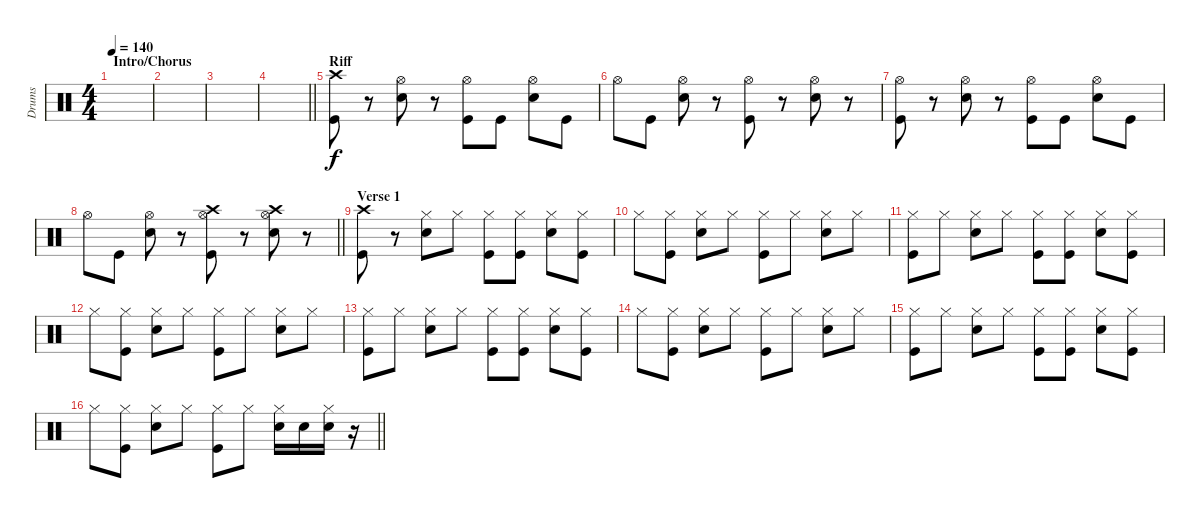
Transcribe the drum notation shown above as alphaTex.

\track ("Drums" "Drums") {instrument percussion}
\staff {score}
\articulation defaults
\ts (4 4)
\section ("" "Intro/Chorus")
\tempo 140
\clef neutral
\ks c
|
|
|
\barLineRight lightlight
|
\section ("" "Riff")
("Kick (hit)" "Crash high (hit)").8 r.8 ("Electric Snare (hit)" "Hi-Hat (open)").8 r.8 ("Kick (hit)" "Hi-Hat (open)").8 "Kick (hit)".8 ("Electric Snare (hit)" "Hi-Hat (open)").8 "Kick (hit)".8 |
"Hi-Hat (open)".8 "Kick (hit)".8 ("Electric Snare (hit)" "Hi-Hat (open)").8 r.8 ("Kick (hit)" "Hi-Hat (open)").8 r.8 ("Electric Snare (hit)" "Hi-Hat (open)").8 r.8 |
("Kick (hit)" "Hi-Hat (open)").8 r.8 ("Electric Snare (hit)" "Hi-Hat (open)").8 r.8 ("Kick (hit)" "Hi-Hat (open)").8 "Kick (hit)".8 ("Electric Snare (hit)" "Hi-Hat (open)").8 "Kick (hit)".8 |
\barLineRight lightlight "Hi-Hat (open)".8 "Kick (hit)".8
("Electric Snare (hit)" "Hi-Hat (open)").8 r.8 ("Kick (hit)" "Hi-Hat (open)" "Crash high (hit)").8 r.8 ("Electric Snare (hit)" "Hi-Hat (open)" "Crash high (hit)").8 r.8 |
\section ("" "Verse 1")
("Kick (hit)" "Crash high (hit)").8 r.8 ("Electric Snare (hit)" "Hi-Hat (closed)").8 "Hi-Hat (closed)".8 ("Kick (hit)" "Hi-Hat (closed)").8 ("Kick (hit)" "Hi-Hat (closed)").8 ("Electric Snare (hit)" "Hi-Hat (closed)").8 ("Kick (hit)" "Hi-Hat (closed)").8 |
"Hi-Hat (closed)".8 ("Kick (hit)" "Hi-Hat (closed)").8 ("Electric Snare (hit)" "Hi-Hat (closed)").8 "Hi-Hat (closed)".8 ("Kick (hit)" "Hi-Hat (closed)").8 "Hi-Hat (closed)".8 ("Electric Snare (hit)" "Hi-Hat (closed)").8 "Hi-Hat (closed)".8 |
("Kick (hit)" "Hi-Hat (closed)").8 "Hi-Hat (closed)".8 ("Electric Snare (hit)" "Hi-Hat (closed)").8 "Hi-Hat (closed)".8 ("Kick (hit)" "Hi-Hat (closed)").8 ("Kick (hit)" "Hi-Hat (closed)").8 ("Electric Snare (hit)" "Hi-Hat (closed)").8 ("Kick (hit)" "Hi-Hat (closed)").8 |
"Hi-Hat (closed)".8 ("Kick (hit)" "Hi-Hat (closed)").8 ("Electric Snare (hit)" "Hi-Hat (closed)").8 "Hi-Hat (closed)".8 ("Kick (hit)" "Hi-Hat (closed)").8 "Hi-Hat (closed)".8 ("Electric Snare (hit)" "Hi-Hat (closed)").8 "Hi-Hat (closed)".8 |
("Kick (hit)" "Hi-Hat (closed)").8 "Hi-Hat (closed)".8 ("Electric Snare (hit)" "Hi-Hat (closed)").8 "Hi-Hat (closed)".8 ("Kick (hit)" "Hi-Hat (closed)").8 ("Kick (hit)" "Hi-Hat (closed)").8 ("Electric Snare (hit)" "Hi-Hat (closed)").8 ("Kick (hit)" "Hi-Hat (closed)").8 |
"Hi-Hat (closed)".8 ("Kick (hit)" "Hi-Hat (closed)").8 ("Electric Snare (hit)" "Hi-Hat (closed)").8 "Hi-Hat (closed)".8 ("Kick (hit)" "Hi-Hat (closed)").8 "Hi-Hat (closed)".8 ("Electric Snare (hit)" "Hi-Hat (closed)").8 "Hi-Hat (closed)".8 |
("Kick (hit)" "Hi-Hat (closed)").8 "Hi-Hat (closed)".8 ("Electric Snare (hit)" "Hi-Hat (closed)").8 "Hi-Hat (closed)".8 ("Kick (hit)" "Hi-Hat (closed)").8 ("Kick (hit)" "Hi-Hat (closed)").8 ("Electric Snare (hit)" "Hi-Hat (closed)").8 ("Kick (hit)" "Hi-Hat (closed)").8 |
\barLineRight lightlight "Hi-Hat (closed)".8
("Kick (hit)" "Hi-Hat (closed)").8 ("Electric Snare (hit)" "Hi-Hat (closed)").8 "Hi-Hat (closed)".8 ("Kick (hit)" "Hi-Hat (closed)").8 "Hi-Hat (closed)".8 ("Electric Snare (hit)" "Hi-Hat (closed)").16 "Electric Snare (hit)".16 ("Electric Snare (hit)" "Hi-Hat (closed)").16 r.16
